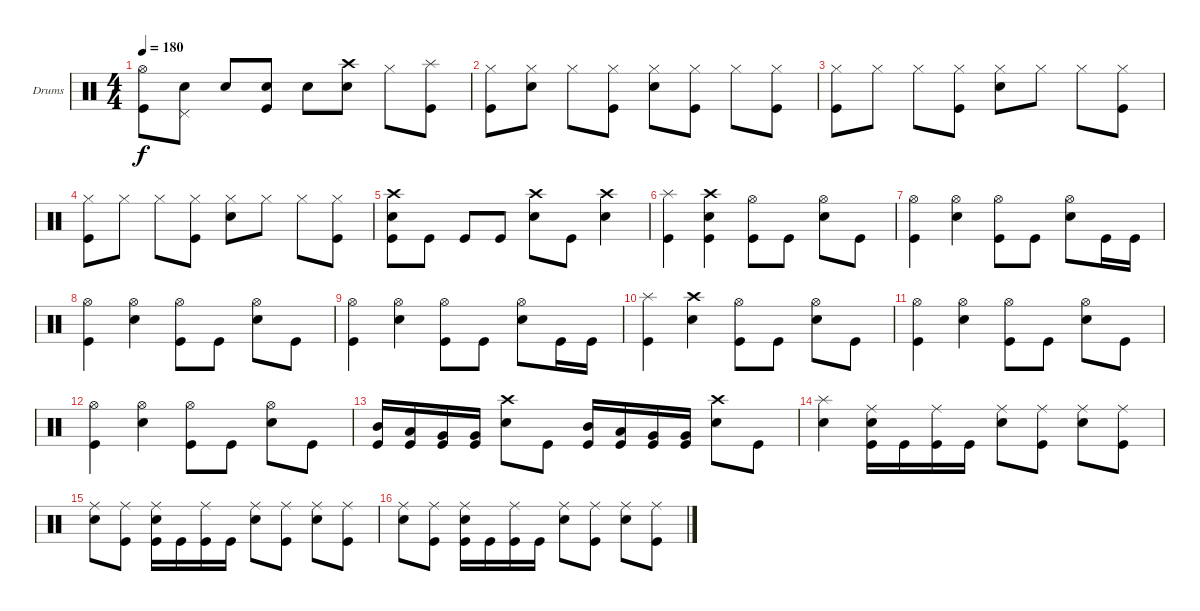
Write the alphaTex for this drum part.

\bracketExtendMode groupsimilarinstruments
\firstSystemTrackNameOrientation horizontal
\otherSystemsTrackNameOrientation horizontal
\track ("Drumkit" "Drums") {instrument percussion}
\staff {score}
\articulation defaults
\ts (4 4)
\tempo 180
\clef neutral
\ks c
("Hi-Hat (open)" "Kick (hit)").8{dy f} ("Pedal Hi-Hat (hit)" "Snare (hit) 2").8 "Snare (hit) 2".8 ("Snare (hit) 2" "Kick (hit)").8 "Snare (hit) 2".8 ("Crash high (hit)" "Snare (hit) 2").8 "Hi-Hat (closed)".8 ("Splash (hit)" "Kick (hit)").8 |
("Hi-Hat (closed)" "Kick (hit)").8 ("Hi-Hat (closed)" "Snare (hit) 2").8 "Hi-Hat (closed)".8 ("Hi-Hat (closed)" "Kick (hit)").8 ("Hi-Hat (closed)" "Snare (hit) 2").8 ("Hi-Hat (closed)" "Kick (hit)").8 "Hi-Hat (closed)".8 ("Hi-Hat (closed)" "Kick (hit)").8 |
("Hi-Hat (closed)" "Kick (hit)").8 "Hi-Hat (closed)".8 "Hi-Hat (closed)".8 ("Hi-Hat (closed)" "Kick (hit)").8 ("Hi-Hat (closed)" "Snare (hit) 2").8 "Hi-Hat (closed)".8 "Hi-Hat (closed)".8 ("Hi-Hat (closed)" "Kick (hit)").8 |
("Hi-Hat (closed)" "Kick (hit)").8 "Hi-Hat (closed)".8 "Hi-Hat (closed)".8 ("Hi-Hat (closed)" "Kick (hit)").8 ("Hi-Hat (closed)" "Snare (hit) 2").8 "Hi-Hat (closed)".8 "Hi-Hat (closed)".8 ("Hi-Hat (closed)" "Kick (hit)").8 |
("Crash high (hit)" "Snare (hit) 2" "Kick (hit)").8 "Kick (hit)".8 "Kick (hit)".8 "Kick (hit)".8 ("Crash high (hit)" "Snare (hit) 2").8 "Kick (hit)".8 ("Crash high (hit)" "Snare (hit) 2").4 |
("Splash (hit)" "Kick (hit)").4 ("Crash high (hit)" "Snare (hit) 2" "Kick (hit)").4 ("Hi-Hat (open)" "Kick (hit)").8 "Kick (hit)".8 ("Hi-Hat (open)" "Snare (hit) 2").8 "Kick (hit)".8 |
("Hi-Hat (open)" "Kick (hit)").4 ("Hi-Hat (open)" "Snare (hit) 2").4 ("Hi-Hat (open)" "Kick (hit)").8 "Kick (hit)".8 ("Hi-Hat (open)" "Snare (hit) 2").8 "Kick (hit)".16 "Kick (hit)".16 |
("Hi-Hat (open)" "Kick (hit)").4 ("Hi-Hat (open)" "Snare (hit) 2").4 ("Hi-Hat (open)" "Kick (hit)").8 "Kick (hit)".8 ("Hi-Hat (open)" "Snare (hit) 2").8 "Kick (hit)".8 |
("Hi-Hat (open)" "Kick (hit)").4 ("Hi-Hat (open)" "Snare (hit) 2").4 ("Hi-Hat (open)" "Kick (hit)").8 "Kick (hit)".8 ("Hi-Hat (open)" "Snare (hit) 2").8 "Kick (hit)".16 "Kick (hit)".16 |
("Splash (hit)" "Kick (hit)").4 ("Crash high (hit)" "Snare (hit) 2").4 ("Hi-Hat (open)" "Kick (hit)").8 "Kick (hit)".8 ("Hi-Hat (open)" "Snare (hit) 2").8 "Kick (hit)".8 |
("Hi-Hat (open)" "Kick (hit)").4 ("Hi-Hat (open)" "Snare (hit) 2").4 ("Hi-Hat (open)" "Kick (hit)").8 "Kick (hit)".8 ("Hi-Hat (open)" "Snare (hit) 2").8 "Kick (hit)".8 |
("Hi-Hat (open)" "Kick (hit)").4 ("Hi-Hat (open)" "Snare (hit) 2").4 ("Hi-Hat (open)" "Kick (hit)").8 "Kick (hit)".8 ("Hi-Hat (open)" "Snare (hit) 2").8 "Kick (hit)".8 |
("Mid Tom (hit)" "Kick (hit)").16 ("Low Tom (hit)" "Kick (hit)").16 ("Very Low Tom (hit)" "Kick (hit)").16 ("Very Low Tom (hit)" "Kick (hit)").16 ("Crash high (hit)" "Snare (hit) 2").8 "Kick (hit)".8 ("Mid Tom (hit)" "Kick (hit)").16 ("Low Tom (hit)" "Kick (hit)").16 ("Very Low Tom (hit)" "Kick (hit)").16 ("Very Low Tom (hit)" "Kick (hit)").16 ("Crash high (hit)" "Snare (hit) 2").8 "Kick (hit)".8 |
("Splash (hit)" "Snare (hit) 2").4 ("Ride (middle)" "Snare (hit) 2" "Kick (hit)").16 "Kick (hit)".16 ("Ride (middle)" "Kick (hit)").16 "Kick (hit)".16 ("Ride (middle)" "Snare (hit) 2").8 ("Ride (middle)" "Kick (hit)").8 ("Ride (middle)" "Snare (hit) 2").8 ("Ride (middle)" "Kick (hit)").8 |
("Ride (middle)" "Snare (hit) 2").8 ("Ride (middle)" "Kick (hit)").8 ("Ride (middle)" "Snare (hit) 2" "Kick (hit)").16 "Kick (hit)".16 ("Ride (middle)" "Kick (hit)").16 "Kick (hit)".16 ("Ride (middle)" "Snare (hit) 2").8 ("Ride (middle)" "Kick (hit)").8 ("Ride (middle)" "Snare (hit) 2").8 ("Ride (middle)" "Kick (hit)").8 |
("Ride (middle)" "Snare (hit) 2").8 ("Ride (middle)" "Kick (hit)").8 ("Ride (middle)" "Snare (hit) 2" "Kick (hit)").16 "Kick (hit)".16 ("Ride (middle)" "Kick (hit)").16 "Kick (hit)".16 ("Ride (middle)" "Snare (hit) 2").8 ("Ride (middle)" "Kick (hit)").8 ("Ride (middle)" "Snare (hit) 2").8 ("Ride (middle)" "Kick (hit)").8
